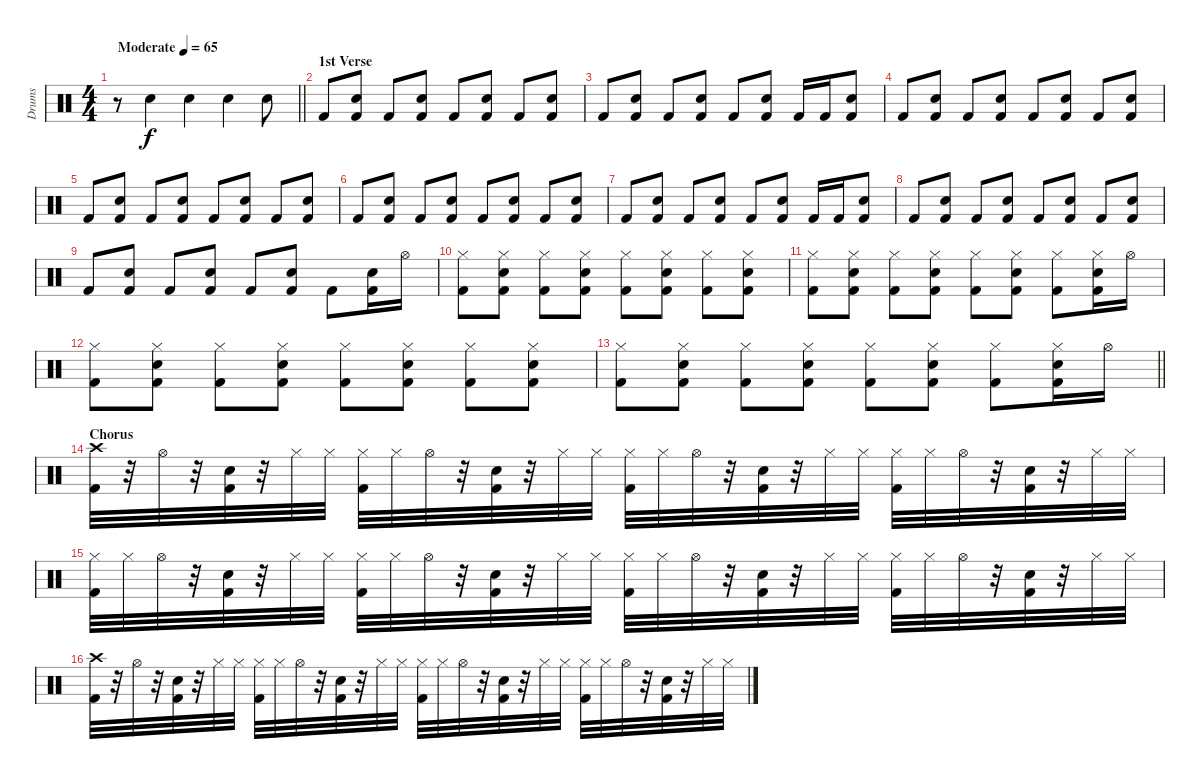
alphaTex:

\track ("Drums" "Drums") {instrument percussion}
\staff {score}
\articulation defaults
\ts (4 4)
\tempo (65 "Moderate")
\clef neutral
\barLineRight lightlight
\ks c
r.8{dy f} "Hand Clap (hit)".4 "Hand Clap (hit)".4 "Hand Clap (hit)".4 "Hand Clap (hit)".8 |
\section ("" "1st Verse")
"Kick (hit) 2".8 ("Snare (hit) 2" "Kick (hit) 2").8 "Kick (hit) 2".8 ("Snare (hit) 2" "Kick (hit) 2").8 "Kick (hit) 2".8 ("Snare (hit) 2" "Kick (hit) 2").8 "Kick (hit) 2".8 ("Snare (hit) 2" "Kick (hit) 2").8 |
"Kick (hit) 2".8 ("Snare (hit) 2" "Kick (hit) 2").8 "Kick (hit) 2".8 ("Snare (hit) 2" "Kick (hit) 2").8 "Kick (hit) 2".8 ("Snare (hit) 2" "Kick (hit) 2").8 "Kick (hit) 2".16 "Kick (hit) 2".16 ("Snare (hit) 2" "Kick (hit) 2").8 |
"Kick (hit) 2".8 ("Snare (hit) 2" "Kick (hit) 2").8 "Kick (hit) 2".8 ("Snare (hit) 2" "Kick (hit) 2").8 "Kick (hit) 2".8 ("Snare (hit) 2" "Kick (hit) 2").8 "Kick (hit) 2".8 ("Snare (hit) 2" "Kick (hit) 2").8 |
"Kick (hit) 2".8 ("Snare (hit) 2" "Kick (hit) 2").8 "Kick (hit) 2".8 ("Snare (hit) 2" "Kick (hit) 2").8 "Kick (hit) 2".8 ("Snare (hit) 2" "Kick (hit) 2").8 "Kick (hit) 2".8 ("Snare (hit) 2" "Kick (hit) 2").8 |
"Kick (hit) 2".8 ("Snare (hit) 2" "Kick (hit) 2").8 "Kick (hit) 2".8 ("Snare (hit) 2" "Kick (hit) 2").8 "Kick (hit) 2".8 ("Snare (hit) 2" "Kick (hit) 2").8 "Kick (hit) 2".8 ("Snare (hit) 2" "Kick (hit) 2").8 |
"Kick (hit) 2".8 ("Snare (hit) 2" "Kick (hit) 2").8 "Kick (hit) 2".8 ("Snare (hit) 2" "Kick (hit) 2").8 "Kick (hit) 2".8 ("Snare (hit) 2" "Kick (hit) 2").8 "Kick (hit) 2".16 "Kick (hit) 2".16 ("Snare (hit) 2" "Kick (hit) 2").8 |
"Kick (hit) 2".8 ("Snare (hit) 2" "Kick (hit) 2").8 "Kick (hit) 2".8 ("Snare (hit) 2" "Kick (hit) 2").8 "Kick (hit) 2".8 ("Snare (hit) 2" "Kick (hit) 2").8 "Kick (hit) 2".8 ("Snare (hit) 2" "Kick (hit) 2").8 |
"Kick (hit) 2".8 ("Snare (hit) 2" "Kick (hit) 2").8 "Kick (hit) 2".8 ("Snare (hit) 2" "Kick (hit) 2").8 "Kick (hit) 2".8 ("Snare (hit) 2" "Kick (hit) 2").8 "Kick (hit) 2".8 ("Snare (hit) 2" "Kick (hit) 2").16 "Hi-Hat (open)".16 |
("Hi-Hat (closed)" "Kick (hit) 2").8 ("Hi-Hat (closed)" "Snare (hit) 2" "Kick (hit) 2").8 ("Hi-Hat (closed)" "Kick (hit) 2").8 ("Hi-Hat (closed)" "Snare (hit) 2" "Kick (hit) 2").8 ("Hi-Hat (closed)" "Kick (hit) 2").8 ("Hi-Hat (closed)" "Snare (hit) 2" "Kick (hit) 2").8 ("Hi-Hat (closed)" "Kick (hit) 2").8 ("Hi-Hat (closed)" "Snare (hit) 2" "Kick (hit) 2").8 |
("Hi-Hat (closed)" "Kick (hit) 2").8 ("Hi-Hat (closed)" "Snare (hit) 2" "Kick (hit) 2").8 ("Hi-Hat (closed)" "Kick (hit) 2").8 ("Hi-Hat (closed)" "Snare (hit) 2" "Kick (hit) 2").8 ("Hi-Hat (closed)" "Kick (hit) 2").8 ("Hi-Hat (closed)" "Snare (hit) 2" "Kick (hit) 2").8 ("Hi-Hat (closed)" "Kick (hit) 2").8 ("Hi-Hat (closed)" "Snare (hit) 2" "Kick (hit) 2").16 "Hi-Hat (open)".16 |
("Hi-Hat (closed)" "Kick (hit) 2").8 ("Hi-Hat (closed)" "Snare (hit) 2" "Kick (hit) 2").8 ("Hi-Hat (closed)" "Kick (hit) 2").8 ("Hi-Hat (closed)" "Snare (hit) 2" "Kick (hit) 2").8 ("Hi-Hat (closed)" "Kick (hit) 2").8 ("Hi-Hat (closed)" "Snare (hit) 2" "Kick (hit) 2").8 ("Hi-Hat (closed)" "Kick (hit) 2").8 ("Hi-Hat (closed)" "Snare (hit) 2" "Kick (hit) 2").8 |
\barLineRight lightlight
("Hi-Hat (closed)" "Kick (hit) 2").8 ("Hi-Hat (closed)" "Snare (hit) 2" "Kick (hit) 2").8 ("Hi-Hat (closed)" "Kick (hit) 2").8 ("Hi-Hat (closed)" "Snare (hit) 2" "Kick (hit) 2").8 ("Hi-Hat (closed)" "Kick (hit) 2").8 ("Hi-Hat (closed)" "Snare (hit) 2" "Kick (hit) 2").8 ("Hi-Hat (closed)" "Kick (hit) 2").8 ("Hi-Hat (closed)" "Snare (hit) 2" "Kick (hit) 2").16 "Hi-Hat (open)".16 |
\section ("" "Chorus")
("Crash high (hit)" "Kick (hit) 2").32 r.32 "Hi-Hat (open)".32 r.32 ("Snare (hit) 2" "Kick (hit) 2").32 r.32 "Hi-Hat (closed)".32 "Hi-Hat (closed)".32 ("Hi-Hat (closed)" "Kick (hit) 2").32 "Hi-Hat (closed)".32 "Hi-Hat (open)".32 r.32 ("Snare (hit) 2" "Kick (hit) 2").32 r.32 "Hi-Hat (closed)".32 "Hi-Hat (closed)".32 ("Hi-Hat (closed)" "Kick (hit) 2").32 "Hi-Hat (closed)".32 "Hi-Hat (open)".32 r.32 ("Snare (hit) 2" "Kick (hit) 2").32 r.32 "Hi-Hat (closed)".32 "Hi-Hat (closed)".32 ("Hi-Hat (closed)" "Kick (hit) 2").32 "Hi-Hat (closed)".32 "Hi-Hat (open)".32 r.32 ("Snare (hit) 2" "Kick (hit) 2").32 r.32 "Hi-Hat (closed)".32 "Hi-Hat (closed)".32 |
("Hi-Hat (closed)" "Kick (hit) 2").32 "Hi-Hat (closed)".32 "Hi-Hat (open)".32 r.32 ("Snare (hit) 2" "Kick (hit) 2").32 r.32 "Hi-Hat (closed)".32 "Hi-Hat (closed)".32 ("Hi-Hat (closed)" "Kick (hit) 2").32 "Hi-Hat (closed)".32 "Hi-Hat (open)".32 r.32 ("Snare (hit) 2" "Kick (hit) 2").32 r.32 "Hi-Hat (closed)".32 "Hi-Hat (closed)".32 ("Hi-Hat (closed)" "Kick (hit) 2").32 "Hi-Hat (closed)".32 "Hi-Hat (open)".32 r.32 ("Snare (hit) 2" "Kick (hit) 2").32 r.32 "Hi-Hat (closed)".32 "Hi-Hat (closed)".32 ("Hi-Hat (closed)" "Kick (hit) 2").32 "Hi-Hat (closed)".32 "Hi-Hat (open)".32 r.32 ("Snare (hit) 2" "Kick (hit) 2").32 r.32 "Hi-Hat (closed)".32 "Hi-Hat (closed)".32 |
("Crash high (hit)" "Kick (hit) 2").32 r.32 "Hi-Hat (open)".32 r.32 ("Snare (hit) 2" "Kick (hit) 2").32 r.32 "Hi-Hat (closed)".32 "Hi-Hat (closed)".32 ("Hi-Hat (closed)" "Kick (hit) 2").32 "Hi-Hat (closed)".32 "Hi-Hat (open)".32 r.32 ("Snare (hit) 2" "Kick (hit) 2").32 r.32 "Hi-Hat (closed)".32 "Hi-Hat (closed)".32 ("Hi-Hat (closed)" "Kick (hit) 2").32 "Hi-Hat (closed)".32 "Hi-Hat (open)".32 r.32 ("Snare (hit) 2" "Kick (hit) 2").32 r.32 "Hi-Hat (closed)".32 "Hi-Hat (closed)".32 ("Hi-Hat (closed)" "Kick (hit) 2").32 "Hi-Hat (closed)".32 "Hi-Hat (open)".32 r.32 ("Snare (hit) 2" "Kick (hit) 2").32 r.32 "Hi-Hat (closed)".32 "Hi-Hat (closed)".32
